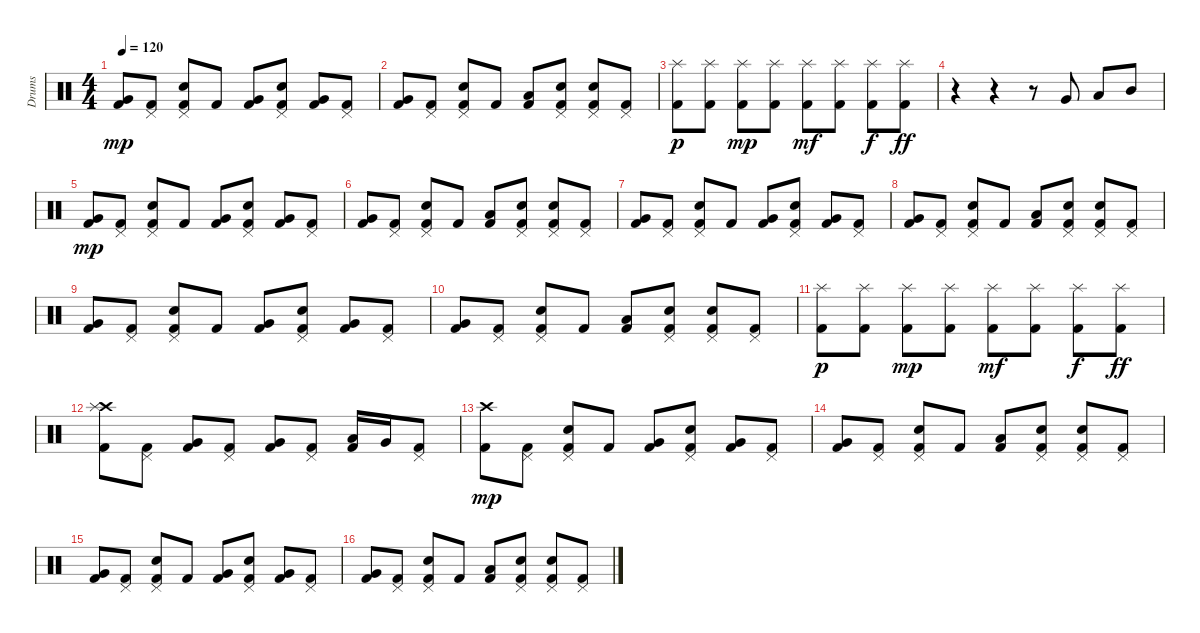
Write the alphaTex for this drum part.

\track ("Drums" "Drums") {instrument percussion}
\staff {score}
\articulation defaults
\ts (4 4)
\tempo 120
\clef neutral
\ks c
("Very Low Tom (hit)" "Kick (hit) 2").8{dy mp} ("Pedal Hi-Hat (hit)" "Kick (hit) 2").8 ("Pedal Hi-Hat (hit)" "Electric Snare (hit)" "Kick (hit) 2").8 "Kick (hit) 2".8 ("Very Low Tom (hit)" "Kick (hit) 2").8 ("Pedal Hi-Hat (hit)" "Electric Snare (hit)" "Kick (hit) 2").8 ("Very Low Tom (hit)" "Kick (hit) 2").8 ("Pedal Hi-Hat (hit)" "Kick (hit) 2").8 |
("Very Low Tom (hit)" "Kick (hit) 2").8 ("Pedal Hi-Hat (hit)" "Kick (hit) 2").8 ("Pedal Hi-Hat (hit)" "Electric Snare (hit)" "Kick (hit) 2").8 "Kick (hit) 2".8 ("Low Tom (hit)" "Kick (hit) 2").8 ("Pedal Hi-Hat (hit)" "Electric Snare (hit)" "Kick (hit) 2").8 ("Pedal Hi-Hat (hit)" "Electric Snare (hit)" "Kick (hit) 2").8 ("Pedal Hi-Hat (hit)" "Kick (hit) 2").8 |
("Splash (hit)" "Kick (hit) 2").8{dy p} ("Splash (hit)" "Kick (hit) 2").8 ("Splash (hit)" "Kick (hit) 2").8{dy mp} ("Splash (hit)" "Kick (hit) 2").8 ("Splash (hit)" "Kick (hit) 2").8{dy mf} ("Splash (hit)" "Kick (hit) 2").8 ("Splash (hit)" "Kick (hit) 2").8{dy f} ("Splash (hit)" "Kick (hit) 2").8{dy ff} |
r.4 r.4 r.8 "Very Low Tom (hit)".8 "Low Tom (hit)".8 "Mid Tom (hit)".8 |
("Very Low Tom (hit)" "Kick (hit) 2").8{dy mp} ("Pedal Hi-Hat (hit)" "Kick (hit) 2").8 ("Pedal Hi-Hat (hit)" "Electric Snare (hit)" "Kick (hit) 2").8 "Kick (hit) 2".8 ("Very Low Tom (hit)" "Kick (hit) 2").8 ("Pedal Hi-Hat (hit)" "Electric Snare (hit)" "Kick (hit) 2").8 ("Very Low Tom (hit)" "Kick (hit) 2").8 ("Pedal Hi-Hat (hit)" "Kick (hit) 2").8 |
("Very Low Tom (hit)" "Kick (hit) 2").8 ("Pedal Hi-Hat (hit)" "Kick (hit) 2").8 ("Pedal Hi-Hat (hit)" "Electric Snare (hit)" "Kick (hit) 2").8 "Kick (hit) 2".8 ("Low Tom (hit)" "Kick (hit) 2").8 ("Pedal Hi-Hat (hit)" "Electric Snare (hit)" "Kick (hit) 2").8 ("Pedal Hi-Hat (hit)" "Electric Snare (hit)" "Kick (hit) 2").8 ("Pedal Hi-Hat (hit)" "Kick (hit) 2").8 |
("Very Low Tom (hit)" "Kick (hit) 2").8 ("Pedal Hi-Hat (hit)" "Kick (hit) 2").8 ("Pedal Hi-Hat (hit)" "Electric Snare (hit)" "Kick (hit) 2").8 "Kick (hit) 2".8 ("Very Low Tom (hit)" "Kick (hit) 2").8 ("Pedal Hi-Hat (hit)" "Electric Snare (hit)" "Kick (hit) 2").8 ("Very Low Tom (hit)" "Kick (hit) 2").8 ("Pedal Hi-Hat (hit)" "Kick (hit) 2").8 |
("Very Low Tom (hit)" "Kick (hit) 2").8 ("Pedal Hi-Hat (hit)" "Kick (hit) 2").8 ("Pedal Hi-Hat (hit)" "Electric Snare (hit)" "Kick (hit) 2").8 "Kick (hit) 2".8 ("Low Tom (hit)" "Kick (hit) 2").8 ("Pedal Hi-Hat (hit)" "Electric Snare (hit)" "Kick (hit) 2").8 ("Pedal Hi-Hat (hit)" "Electric Snare (hit)" "Kick (hit) 2").8 ("Pedal Hi-Hat (hit)" "Kick (hit) 2").8 |
("Very Low Tom (hit)" "Kick (hit) 2").8 ("Pedal Hi-Hat (hit)" "Kick (hit) 2").8 ("Pedal Hi-Hat (hit)" "Electric Snare (hit)" "Kick (hit) 2").8 "Kick (hit) 2".8 ("Very Low Tom (hit)" "Kick (hit) 2").8 ("Pedal Hi-Hat (hit)" "Electric Snare (hit)" "Kick (hit) 2").8 ("Very Low Tom (hit)" "Kick (hit) 2").8 ("Pedal Hi-Hat (hit)" "Kick (hit) 2").8 |
("Very Low Tom (hit)" "Kick (hit) 2").8 ("Pedal Hi-Hat (hit)" "Kick (hit) 2").8 ("Pedal Hi-Hat (hit)" "Electric Snare (hit)" "Kick (hit) 2").8 "Kick (hit) 2".8 ("Low Tom (hit)" "Kick (hit) 2").8 ("Pedal Hi-Hat (hit)" "Electric Snare (hit)" "Kick (hit) 2").8 ("Pedal Hi-Hat (hit)" "Electric Snare (hit)" "Kick (hit) 2").8 ("Pedal Hi-Hat (hit)" "Kick (hit) 2").8 |
("Splash (hit)" "Kick (hit) 2").8{dy p} ("Splash (hit)" "Kick (hit) 2").8 ("Splash (hit)" "Kick (hit) 2").8{dy mp} ("Splash (hit)" "Kick (hit) 2").8 ("Splash (hit)" "Kick (hit) 2").8{dy mf} ("Splash (hit)" "Kick (hit) 2").8 ("Splash (hit)" "Kick (hit) 2").8{dy f} ("Splash (hit)" "Kick (hit) 2").8{dy ff} |
("Crash high (hit)" "Splash (hit)" "Kick (hit) 2").8 ("Pedal Hi-Hat (hit)" "Kick (hit) 2").8 ("Very Low Tom (hit)" "Kick (hit) 2").8 ("Pedal Hi-Hat (hit)" "Kick (hit) 2").8 ("Very Low Tom (hit)" "Kick (hit) 2").8 ("Pedal Hi-Hat (hit)" "Kick (hit) 2").8 ("Low Tom (hit)" "Kick (hit) 2").16 "Very Low Tom (hit)".16 ("Pedal Hi-Hat (hit)" "Kick (hit) 2").8 |
("Crash high (hit)" "Kick (hit) 2").8{dy mp volume 13} ("Pedal Hi-Hat (hit)" "Kick (hit) 2").8 ("Pedal Hi-Hat (hit)" "Electric Snare (hit)" "Kick (hit) 2").8 "Kick (hit) 2".8 ("Very Low Tom (hit)" "Kick (hit) 2").8 ("Pedal Hi-Hat (hit)" "Electric Snare (hit)" "Kick (hit) 2").8 ("Very Low Tom (hit)" "Kick (hit) 2").8 ("Pedal Hi-Hat (hit)" "Kick (hit) 2").8 |
("Very Low Tom (hit)" "Kick (hit) 2").8 ("Pedal Hi-Hat (hit)" "Kick (hit) 2").8 ("Pedal Hi-Hat (hit)" "Electric Snare (hit)" "Kick (hit) 2").8 "Kick (hit) 2".8 ("Low Tom (hit)" "Kick (hit) 2").8 ("Pedal Hi-Hat (hit)" "Electric Snare (hit)" "Kick (hit) 2").8 ("Pedal Hi-Hat (hit)" "Electric Snare (hit)" "Kick (hit) 2").8 ("Pedal Hi-Hat (hit)" "Kick (hit) 2").8 |
("Very Low Tom (hit)" "Kick (hit) 2").8 ("Pedal Hi-Hat (hit)" "Kick (hit) 2").8 ("Pedal Hi-Hat (hit)" "Electric Snare (hit)" "Kick (hit) 2").8 "Kick (hit) 2".8 ("Very Low Tom (hit)" "Kick (hit) 2").8 ("Pedal Hi-Hat (hit)" "Electric Snare (hit)" "Kick (hit) 2").8 ("Very Low Tom (hit)" "Kick (hit) 2").8 ("Pedal Hi-Hat (hit)" "Kick (hit) 2").8 |
("Very Low Tom (hit)" "Kick (hit) 2").8 ("Pedal Hi-Hat (hit)" "Kick (hit) 2").8 ("Pedal Hi-Hat (hit)" "Electric Snare (hit)" "Kick (hit) 2").8 "Kick (hit) 2".8 ("Low Tom (hit)" "Kick (hit) 2").8 ("Pedal Hi-Hat (hit)" "Electric Snare (hit)" "Kick (hit) 2").8 ("Pedal Hi-Hat (hit)" "Electric Snare (hit)" "Kick (hit) 2").8 ("Pedal Hi-Hat (hit)" "Kick (hit) 2").8
